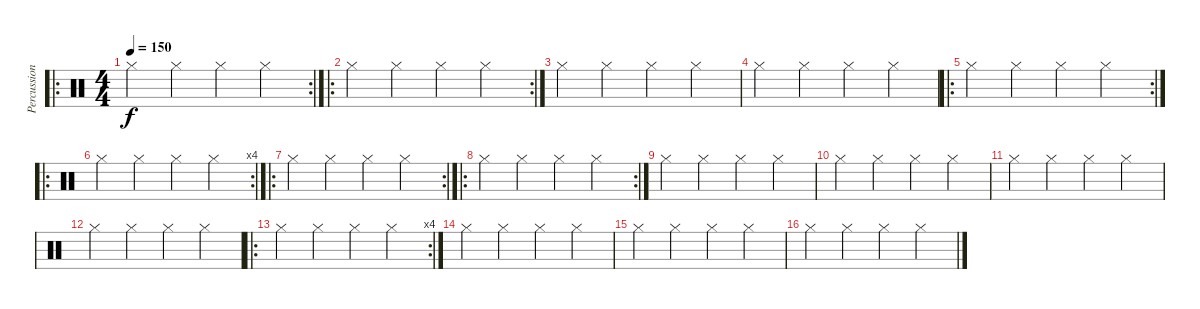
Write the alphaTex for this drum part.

\track ("Percussioni" "Percussion") {instrument percussion}
\staff {score}
\articulation defaults
\ro
\rc 2
\ts (4 4)
\tempo 150
\clef neutral
\ks c "Hi-Hat (closed)".4{dy f} "Hi-Hat (closed)".4 "Hi-Hat (closed)".4 "Hi-Hat (closed)".4
|
\ro
\rc 2 "Hi-Hat (closed)".4 "Hi-Hat (closed)".4 "Hi-Hat (closed)".4 "Hi-Hat (closed)".4
|
"Hi-Hat (closed)".4 "Hi-Hat (closed)".4 "Hi-Hat (closed)".4 "Hi-Hat (closed)".4 |
"Hi-Hat (closed)".4 "Hi-Hat (closed)".4 "Hi-Hat (closed)".4 "Hi-Hat (closed)".4 |
\ro
\rc 2 "Hi-Hat (closed)".4 "Hi-Hat (closed)".4 "Hi-Hat (closed)".4 "Hi-Hat (closed)".4
|
\ro
\rc 4 "Hi-Hat (closed)".4 "Hi-Hat (closed)".4 "Hi-Hat (closed)".4 "Hi-Hat (closed)".4
|
\ro
\rc 2 "Hi-Hat (closed)".4 "Hi-Hat (closed)".4 "Hi-Hat (closed)".4 "Hi-Hat (closed)".4
|
\ro
\rc 2 "Hi-Hat (closed)".4 "Hi-Hat (closed)".4 "Hi-Hat (closed)".4 "Hi-Hat (closed)".4
|
"Hi-Hat (closed)".4 "Hi-Hat (closed)".4 "Hi-Hat (closed)".4 "Hi-Hat (closed)".4 |
"Hi-Hat (closed)".4 "Hi-Hat (closed)".4 "Hi-Hat (closed)".4 "Hi-Hat (closed)".4 |
"Hi-Hat (closed)".4 "Hi-Hat (closed)".4 "Hi-Hat (closed)".4 "Hi-Hat (closed)".4 |
"Hi-Hat (closed)".4 "Hi-Hat (closed)".4 "Hi-Hat (closed)".4 "Hi-Hat (closed)".4 |
\ro
\rc 4 "Hi-Hat (closed)".4 "Hi-Hat (closed)".4 "Hi-Hat (closed)".4 "Hi-Hat (closed)".4
|
"Hi-Hat (closed)".4 "Hi-Hat (closed)".4 "Hi-Hat (closed)".4 "Hi-Hat (closed)".4 |
"Hi-Hat (closed)".4 "Hi-Hat (closed)".4 "Hi-Hat (closed)".4 "Hi-Hat (closed)".4 |
"Hi-Hat (closed)".4 "Hi-Hat (closed)".4 "Hi-Hat (closed)".4 "Hi-Hat (closed)".4
